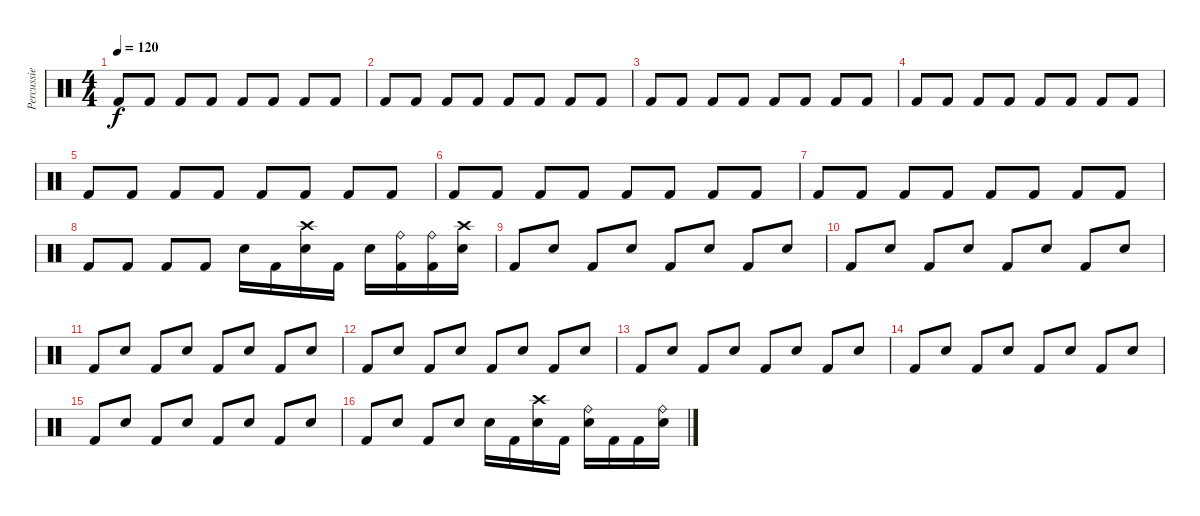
\track ("Percussie" "Percussie") {instrument percussion}
\staff {score}
\articulation defaults
\ts (4 4)
\tempo 120
\clef neutral
\ks c "Kick (hit) 2".8{dy f} "Kick (hit) 2".8 "Kick (hit) 2".8 "Kick (hit) 2".8 "Kick (hit) 2".8 "Kick (hit) 2".8 "Kick (hit) 2".8 "Kick (hit) 2".8
|
"Kick (hit) 2".8 "Kick (hit) 2".8 "Kick (hit) 2".8 "Kick (hit) 2".8 "Kick (hit) 2".8 "Kick (hit) 2".8 "Kick (hit) 2".8 "Kick (hit) 2".8 |
"Kick (hit) 2".8 "Kick (hit) 2".8 "Kick (hit) 2".8 "Kick (hit) 2".8 "Kick (hit) 2".8 "Kick (hit) 2".8 "Kick (hit) 2".8 "Kick (hit) 2".8 |
"Kick (hit) 2".8 "Kick (hit) 2".8 "Kick (hit) 2".8 "Kick (hit) 2".8 "Kick (hit) 2".8 "Kick (hit) 2".8 "Kick (hit) 2".8 "Kick (hit) 2".8 |
"Kick (hit) 2".8 "Kick (hit) 2".8 "Kick (hit) 2".8 "Kick (hit) 2".8 "Kick (hit) 2".8 "Kick (hit) 2".8 "Kick (hit) 2".8 "Kick (hit) 2".8 |
"Kick (hit) 2".8 "Kick (hit) 2".8 "Kick (hit) 2".8 "Kick (hit) 2".8 "Kick (hit) 2".8 "Kick (hit) 2".8 "Kick (hit) 2".8 "Kick (hit) 2".8 |
"Kick (hit) 2".8 "Kick (hit) 2".8 "Kick (hit) 2".8 "Kick (hit) 2".8 "Kick (hit) 2".8 "Kick (hit) 2".8 "Kick (hit) 2".8 "Kick (hit) 2".8 |
"Kick (hit) 2".8 "Kick (hit) 2".8 "Kick (hit) 2".8 "Kick (hit) 2".8 "Electric Snare (hit)".16 "Kick (hit) 2".16 ("Crash high (hit)" "Electric Snare (hit)").16 "Kick (hit) 2".16 "Electric Snare (hit)".16 ("Ride (bell)" "Kick (hit) 2").16 ("Ride (bell)" "Kick (hit) 2").16 ("Crash high (hit)" "Electric Snare (hit)").16 |
"Kick (hit) 2".8 "Electric Snare (hit)".8 "Kick (hit) 2".8 "Electric Snare (hit)".8 "Kick (hit) 2".8 "Electric Snare (hit)".8 "Kick (hit) 2".8 "Electric Snare (hit)".8 |
"Kick (hit) 2".8 "Electric Snare (hit)".8 "Kick (hit) 2".8 "Electric Snare (hit)".8 "Kick (hit) 2".8 "Electric Snare (hit)".8 "Kick (hit) 2".8 "Electric Snare (hit)".8 |
"Kick (hit) 2".8 "Electric Snare (hit)".8 "Kick (hit) 2".8 "Electric Snare (hit)".8 "Kick (hit) 2".8 "Electric Snare (hit)".8 "Kick (hit) 2".8 "Electric Snare (hit)".8 |
"Kick (hit) 2".8 "Electric Snare (hit)".8 "Kick (hit) 2".8 "Electric Snare (hit)".8 "Kick (hit) 2".8 "Electric Snare (hit)".8 "Kick (hit) 2".8 "Electric Snare (hit)".8 |
"Kick (hit) 2".8 "Electric Snare (hit)".8 "Kick (hit) 2".8 "Electric Snare (hit)".8 "Kick (hit) 2".8 "Electric Snare (hit)".8 "Kick (hit) 2".8 "Electric Snare (hit)".8 |
"Kick (hit) 2".8 "Electric Snare (hit)".8 "Kick (hit) 2".8 "Electric Snare (hit)".8 "Kick (hit) 2".8 "Electric Snare (hit)".8 "Kick (hit) 2".8 "Electric Snare (hit)".8 |
"Kick (hit) 2".8 "Electric Snare (hit)".8 "Kick (hit) 2".8 "Electric Snare (hit)".8 "Kick (hit) 2".8 "Electric Snare (hit)".8 "Kick (hit) 2".8 "Electric Snare (hit)".8 |
"Kick (hit) 2".8 "Electric Snare (hit)".8 "Kick (hit) 2".8 "Electric Snare (hit)".8 "Electric Snare (hit)".16 "Kick (hit) 2".16 ("Crash high (hit)" "Electric Snare (hit)").16 "Kick (hit) 2".16 ("Ride (bell)" "Electric Snare (hit)").16 "Kick (hit) 2".16 "Kick (hit) 2".16 ("Ride (bell)" "Electric Snare (hit)").16
